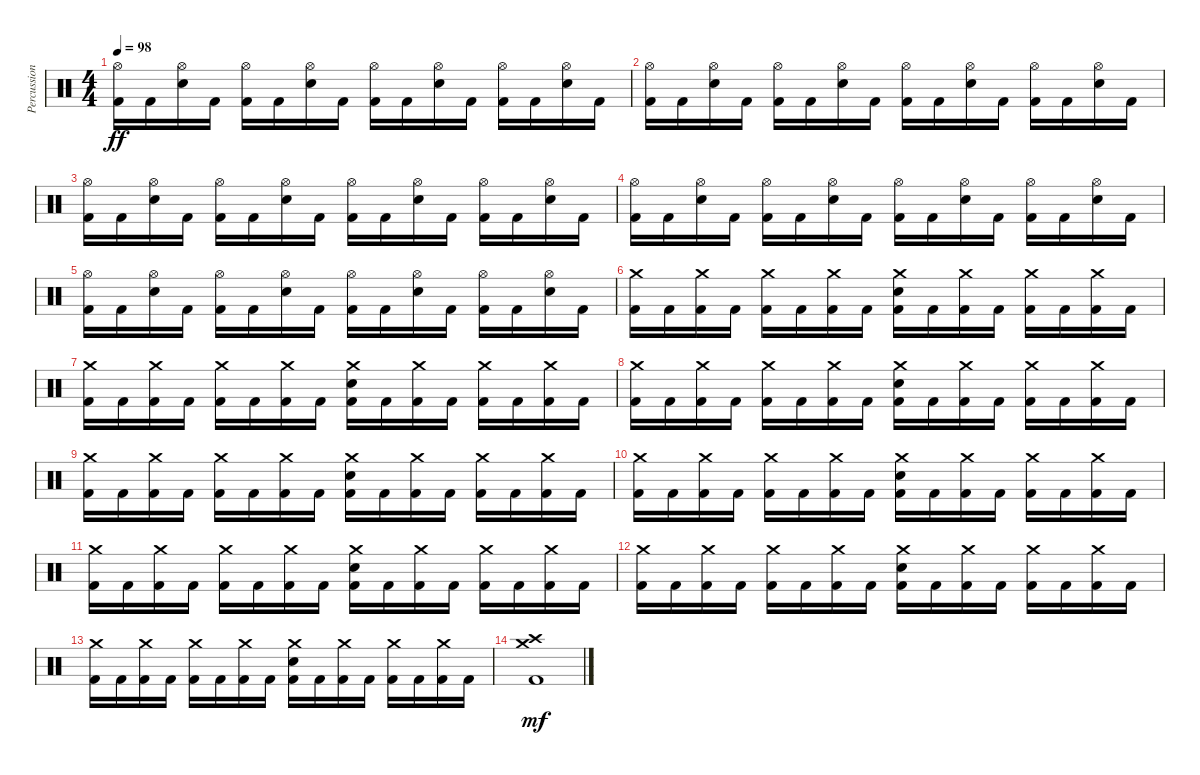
\track ("Percussion" "Percussion") {instrument percussion}
\staff {score}
\articulation defaults
\ts (4 4)
\tempo 98
\clef neutral
\ks c
("Hi-Hat (open)" "Kick (hit) 2").16{dy ff} "Kick (hit) 2".16 ("Hi-Hat (open)" "Electric Snare (hit)").16 "Kick (hit) 2".16 ("Hi-Hat (open)" "Kick (hit) 2").16 "Kick (hit) 2".16 ("Hi-Hat (open)" "Electric Snare (hit)").16 "Kick (hit) 2".16 ("Hi-Hat (open)" "Kick (hit) 2").16 "Kick (hit) 2".16 ("Hi-Hat (open)" "Electric Snare (hit)").16 "Kick (hit) 2".16 ("Hi-Hat (open)" "Kick (hit) 2").16 "Kick (hit) 2".16 ("Hi-Hat (open)" "Electric Snare (hit)").16 "Kick (hit) 2".16 |
("Hi-Hat (open)" "Kick (hit) 2").16 "Kick (hit) 2".16 ("Hi-Hat (open)" "Electric Snare (hit)").16 "Kick (hit) 2".16 ("Hi-Hat (open)" "Kick (hit) 2").16 "Kick (hit) 2".16 ("Hi-Hat (open)" "Electric Snare (hit)").16 "Kick (hit) 2".16 ("Hi-Hat (open)" "Kick (hit) 2").16 "Kick (hit) 2".16 ("Hi-Hat (open)" "Electric Snare (hit)").16 "Kick (hit) 2".16 ("Hi-Hat (open)" "Kick (hit) 2").16 "Kick (hit) 2".16 ("Hi-Hat (open)" "Electric Snare (hit)").16 "Kick (hit) 2".16 |
("Hi-Hat (open)" "Kick (hit) 2").16 "Kick (hit) 2".16 ("Hi-Hat (open)" "Electric Snare (hit)").16 "Kick (hit) 2".16 ("Hi-Hat (open)" "Kick (hit) 2").16 "Kick (hit) 2".16 ("Hi-Hat (open)" "Electric Snare (hit)").16 "Kick (hit) 2".16 ("Hi-Hat (open)" "Kick (hit) 2").16 "Kick (hit) 2".16 ("Hi-Hat (open)" "Electric Snare (hit)").16 "Kick (hit) 2".16 ("Hi-Hat (open)" "Kick (hit) 2").16 "Kick (hit) 2".16 ("Hi-Hat (open)" "Electric Snare (hit)").16 "Kick (hit) 2".16 |
("Hi-Hat (open)" "Kick (hit) 2").16 "Kick (hit) 2".16 ("Hi-Hat (open)" "Electric Snare (hit)").16 "Kick (hit) 2".16 ("Hi-Hat (open)" "Kick (hit) 2").16 "Kick (hit) 2".16 ("Hi-Hat (open)" "Electric Snare (hit)").16 "Kick (hit) 2".16 ("Hi-Hat (open)" "Kick (hit) 2").16 "Kick (hit) 2".16 ("Hi-Hat (open)" "Electric Snare (hit)").16 "Kick (hit) 2".16 ("Hi-Hat (open)" "Kick (hit) 2").16 "Kick (hit) 2".16 ("Hi-Hat (open)" "Electric Snare (hit)").16 "Kick (hit) 2".16 |
("Hi-Hat (open)" "Kick (hit) 2").16 "Kick (hit) 2".16 ("Hi-Hat (open)" "Electric Snare (hit)").16 "Kick (hit) 2".16 ("Hi-Hat (open)" "Kick (hit) 2").16 "Kick (hit) 2".16 ("Hi-Hat (open)" "Electric Snare (hit)").16 "Kick (hit) 2".16 ("Hi-Hat (open)" "Kick (hit) 2").16 "Kick (hit) 2".16 ("Hi-Hat (open)" "Electric Snare (hit)").16 "Kick (hit) 2".16 ("Hi-Hat (open)" "Kick (hit) 2").16 "Kick (hit) 2".16 ("Hi-Hat (open)" "Electric Snare (hit)").16 "Kick (hit) 2".16 |
("Crash medium (hit)" "Kick (hit) 2").16 "Kick (hit) 2".16 ("Crash medium (hit)" "Kick (hit) 2").16 "Kick (hit) 2".16 ("Crash medium (hit)" "Kick (hit) 2").16 "Kick (hit) 2".16 ("Crash medium (hit)" "Kick (hit) 2").16 "Kick (hit) 2".16 ("Crash medium (hit)" "Electric Snare (hit)" "Kick (hit) 2").16 "Kick (hit) 2".16 ("Crash medium (hit)" "Kick (hit) 2").16 "Kick (hit) 2".16 ("Crash medium (hit)" "Kick (hit) 2").16 "Kick (hit) 2".16 ("Crash medium (hit)" "Kick (hit) 2").16 "Kick (hit) 2".16 |
("Crash medium (hit)" "Kick (hit) 2").16 "Kick (hit) 2".16 ("Crash medium (hit)" "Kick (hit) 2").16 "Kick (hit) 2".16 ("Crash medium (hit)" "Kick (hit) 2").16 "Kick (hit) 2".16 ("Crash medium (hit)" "Kick (hit) 2").16 "Kick (hit) 2".16 ("Crash medium (hit)" "Electric Snare (hit)" "Kick (hit) 2").16 "Kick (hit) 2".16 ("Crash medium (hit)" "Kick (hit) 2").16 "Kick (hit) 2".16 ("Crash medium (hit)" "Kick (hit) 2").16 "Kick (hit) 2".16 ("Crash medium (hit)" "Kick (hit) 2").16 "Kick (hit) 2".16 |
("Crash medium (hit)" "Kick (hit) 2").16 "Kick (hit) 2".16 ("Crash medium (hit)" "Kick (hit) 2").16 "Kick (hit) 2".16 ("Crash medium (hit)" "Kick (hit) 2").16 "Kick (hit) 2".16 ("Crash medium (hit)" "Kick (hit) 2").16 "Kick (hit) 2".16 ("Crash medium (hit)" "Electric Snare (hit)" "Kick (hit) 2").16 "Kick (hit) 2".16 ("Crash medium (hit)" "Kick (hit) 2").16 "Kick (hit) 2".16 ("Crash medium (hit)" "Kick (hit) 2").16 "Kick (hit) 2".16 ("Crash medium (hit)" "Kick (hit) 2").16 "Kick (hit) 2".16 |
("Crash medium (hit)" "Kick (hit) 2").16 "Kick (hit) 2".16 ("Crash medium (hit)" "Kick (hit) 2").16 "Kick (hit) 2".16 ("Crash medium (hit)" "Kick (hit) 2").16 "Kick (hit) 2".16 ("Crash medium (hit)" "Kick (hit) 2").16 "Kick (hit) 2".16 ("Crash medium (hit)" "Electric Snare (hit)" "Kick (hit) 2").16 "Kick (hit) 2".16 ("Crash medium (hit)" "Kick (hit) 2").16 "Kick (hit) 2".16 ("Crash medium (hit)" "Kick (hit) 2").16 "Kick (hit) 2".16 ("Crash medium (hit)" "Kick (hit) 2").16 "Kick (hit) 2".16 |
("Crash medium (hit)" "Kick (hit) 2").16 "Kick (hit) 2".16 ("Crash medium (hit)" "Kick (hit) 2").16 "Kick (hit) 2".16 ("Crash medium (hit)" "Kick (hit) 2").16 "Kick (hit) 2".16 ("Crash medium (hit)" "Kick (hit) 2").16 "Kick (hit) 2".16 ("Crash medium (hit)" "Electric Snare (hit)" "Kick (hit) 2").16 "Kick (hit) 2".16 ("Crash medium (hit)" "Kick (hit) 2").16 "Kick (hit) 2".16 ("Crash medium (hit)" "Kick (hit) 2").16 "Kick (hit) 2".16 ("Crash medium (hit)" "Kick (hit) 2").16 "Kick (hit) 2".16 |
("Crash medium (hit)" "Kick (hit) 2").16 "Kick (hit) 2".16 ("Crash medium (hit)" "Kick (hit) 2").16 "Kick (hit) 2".16 ("Crash medium (hit)" "Kick (hit) 2").16 "Kick (hit) 2".16 ("Crash medium (hit)" "Kick (hit) 2").16 "Kick (hit) 2".16 ("Crash medium (hit)" "Electric Snare (hit)" "Kick (hit) 2").16 "Kick (hit) 2".16 ("Crash medium (hit)" "Kick (hit) 2").16 "Kick (hit) 2".16 ("Crash medium (hit)" "Kick (hit) 2").16 "Kick (hit) 2".16 ("Crash medium (hit)" "Kick (hit) 2").16 "Kick (hit) 2".16 |
("Crash medium (hit)" "Kick (hit) 2").16 "Kick (hit) 2".16 ("Crash medium (hit)" "Kick (hit) 2").16 "Kick (hit) 2".16 ("Crash medium (hit)" "Kick (hit) 2").16 "Kick (hit) 2".16 ("Crash medium (hit)" "Kick (hit) 2").16 "Kick (hit) 2".16 ("Crash medium (hit)" "Electric Snare (hit)" "Kick (hit) 2").16 "Kick (hit) 2".16 ("Crash medium (hit)" "Kick (hit) 2").16 "Kick (hit) 2".16 ("Crash medium (hit)" "Kick (hit) 2").16 "Kick (hit) 2".16 ("Crash medium (hit)" "Kick (hit) 2").16 "Kick (hit) 2".16 |
("Crash medium (hit)" "Kick (hit) 2").16 "Kick (hit) 2".16 ("Crash medium (hit)" "Kick (hit) 2").16 "Kick (hit) 2".16 ("Crash medium (hit)" "Kick (hit) 2").16 "Kick (hit) 2".16 ("Crash medium (hit)" "Kick (hit) 2").16 "Kick (hit) 2".16 ("Crash medium (hit)" "Electric Snare (hit)" "Kick (hit) 2").16 "Kick (hit) 2".16 ("Crash medium (hit)" "Kick (hit) 2").16 "Kick (hit) 2".16 ("Crash medium (hit)" "Kick (hit) 2").16 "Kick (hit) 2".16 ("Crash medium (hit)" "Kick (hit) 2").16 "Kick (hit) 2".16 |
("Crash medium (hit)" "Crash high (hit)" "Kick (hit) 2").1{dy mf}
